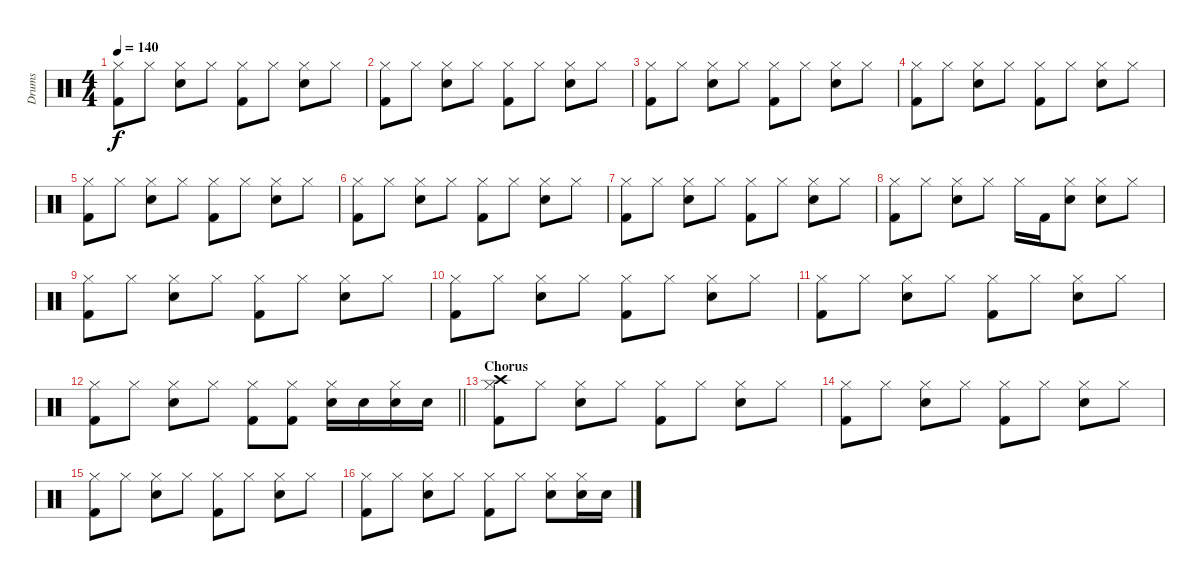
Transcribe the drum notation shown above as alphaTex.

\track ("Drums" "Drums") {instrument percussion}
\staff {score}
\articulation defaults
\ts (4 4)
\tempo 140
\clef neutral
\ks c
("Hi-Hat (closed)" "Kick (hit) 2").8{dy f} "Hi-Hat (closed)".8 ("Hi-Hat (closed)" "Snare (hit) 2").8 "Hi-Hat (closed)".8 ("Hi-Hat (closed)" "Kick (hit) 2").8 "Hi-Hat (closed)".8 ("Hi-Hat (closed)" "Snare (hit) 2").8 "Hi-Hat (closed)".8 |
("Hi-Hat (closed)" "Kick (hit) 2").8 "Hi-Hat (closed)".8 ("Hi-Hat (closed)" "Snare (hit) 2").8 "Hi-Hat (closed)".8 ("Hi-Hat (closed)" "Kick (hit) 2").8 "Hi-Hat (closed)".8 ("Hi-Hat (closed)" "Snare (hit) 2").8 "Hi-Hat (closed)".8 |
("Hi-Hat (closed)" "Kick (hit) 2").8 "Hi-Hat (closed)".8 ("Hi-Hat (closed)" "Snare (hit) 2").8 "Hi-Hat (closed)".8 ("Hi-Hat (closed)" "Kick (hit) 2").8 "Hi-Hat (closed)".8 ("Hi-Hat (closed)" "Snare (hit) 2").8 "Hi-Hat (closed)".8 |
("Hi-Hat (closed)" "Kick (hit) 2").8 "Hi-Hat (closed)".8 ("Hi-Hat (closed)" "Snare (hit) 2").8 "Hi-Hat (closed)".8 ("Hi-Hat (closed)" "Kick (hit) 2").8 "Hi-Hat (closed)".8 ("Hi-Hat (closed)" "Snare (hit) 2").8 "Hi-Hat (closed)".8 |
("Hi-Hat (closed)" "Kick (hit) 2").8 "Hi-Hat (closed)".8 ("Hi-Hat (closed)" "Snare (hit) 2").8 "Hi-Hat (closed)".8 ("Hi-Hat (closed)" "Kick (hit) 2").8 "Hi-Hat (closed)".8 ("Hi-Hat (closed)" "Snare (hit) 2").8 "Hi-Hat (closed)".8 |
("Hi-Hat (closed)" "Kick (hit) 2").8 "Hi-Hat (closed)".8 ("Hi-Hat (closed)" "Snare (hit) 2").8 "Hi-Hat (closed)".8 ("Hi-Hat (closed)" "Kick (hit) 2").8 "Hi-Hat (closed)".8 ("Hi-Hat (closed)" "Snare (hit) 2").8 "Hi-Hat (closed)".8 |
("Hi-Hat (closed)" "Kick (hit) 2").8 "Hi-Hat (closed)".8 ("Hi-Hat (closed)" "Snare (hit) 2").8 "Hi-Hat (closed)".8 ("Hi-Hat (closed)" "Kick (hit) 2").8 "Hi-Hat (closed)".8 ("Hi-Hat (closed)" "Snare (hit) 2").8 "Hi-Hat (closed)".8 |
("Hi-Hat (closed)" "Kick (hit) 2").8 "Hi-Hat (closed)".8 ("Hi-Hat (closed)" "Snare (hit) 2").8 "Hi-Hat (closed)".8 "Hi-Hat (closed)".16 "Kick (hit) 2".16 ("Hi-Hat (closed)" "Snare (hit) 2").8 ("Hi-Hat (closed)" "Snare (hit) 2").8 "Hi-Hat (closed)".8 |
("Hi-Hat (closed)" "Kick (hit) 2").8 "Hi-Hat (closed)".8 ("Hi-Hat (closed)" "Snare (hit) 2").8 "Hi-Hat (closed)".8 ("Hi-Hat (closed)" "Kick (hit) 2").8 "Hi-Hat (closed)".8 ("Hi-Hat (closed)" "Snare (hit) 2").8 "Hi-Hat (closed)".8 |
("Hi-Hat (closed)" "Kick (hit) 2").8 "Hi-Hat (closed)".8 ("Hi-Hat (closed)" "Snare (hit) 2").8 "Hi-Hat (closed)".8 ("Hi-Hat (closed)" "Kick (hit) 2").8 "Hi-Hat (closed)".8 ("Hi-Hat (closed)" "Snare (hit) 2").8 "Hi-Hat (closed)".8 |
("Hi-Hat (closed)" "Kick (hit) 2").8 "Hi-Hat (closed)".8 ("Hi-Hat (closed)" "Snare (hit) 2").8 "Hi-Hat (closed)".8 ("Hi-Hat (closed)" "Kick (hit) 2").8 "Hi-Hat (closed)".8 ("Hi-Hat (closed)" "Snare (hit) 2").8 "Hi-Hat (closed)".8 |
\barLineRight lightlight
("Hi-Hat (closed)" "Kick (hit) 2").8 "Hi-Hat (closed)".8 ("Hi-Hat (closed)" "Snare (hit) 2").8 "Hi-Hat (closed)".8 ("Hi-Hat (closed)" "Kick (hit) 2").8 ("Hi-Hat (closed)" "Kick (hit) 2").8 ("Hi-Hat (closed)" "Snare (hit) 2").16 "Snare (hit) 2".16 ("Hi-Hat (closed)" "Snare (hit) 2").16 "Snare (hit) 2".16 |
\section ("" "Chorus")
("Hi-Hat (closed)" "Crash high (hit)" "Kick (hit) 2").8 "Hi-Hat (closed)".8 ("Hi-Hat (closed)" "Snare (hit) 2").8 "Hi-Hat (closed)".8 ("Hi-Hat (closed)" "Kick (hit) 2").8 "Hi-Hat (closed)".8 ("Hi-Hat (closed)" "Snare (hit) 2").8 "Hi-Hat (closed)".8 |
("Hi-Hat (closed)" "Kick (hit) 2").8 "Hi-Hat (closed)".8 ("Hi-Hat (closed)" "Snare (hit) 2").8 "Hi-Hat (closed)".8 ("Hi-Hat (closed)" "Kick (hit) 2").8 "Hi-Hat (closed)".8 ("Hi-Hat (closed)" "Snare (hit) 2").8 "Hi-Hat (closed)".8 |
("Hi-Hat (closed)" "Kick (hit) 2").8 "Hi-Hat (closed)".8 ("Hi-Hat (closed)" "Snare (hit) 2").8 "Hi-Hat (closed)".8 ("Hi-Hat (closed)" "Kick (hit) 2").8 "Hi-Hat (closed)".8 ("Hi-Hat (closed)" "Snare (hit) 2").8 "Hi-Hat (closed)".8 |
("Hi-Hat (closed)" "Kick (hit) 2").8 "Hi-Hat (closed)".8 ("Hi-Hat (closed)" "Snare (hit) 2").8 "Hi-Hat (closed)".8 ("Hi-Hat (closed)" "Kick (hit) 2").8 "Hi-Hat (closed)".8 ("Hi-Hat (closed)" "Snare (hit) 2").8 ("Hi-Hat (closed)" "Snare (hit) 2").16 "Snare (hit) 2".16
